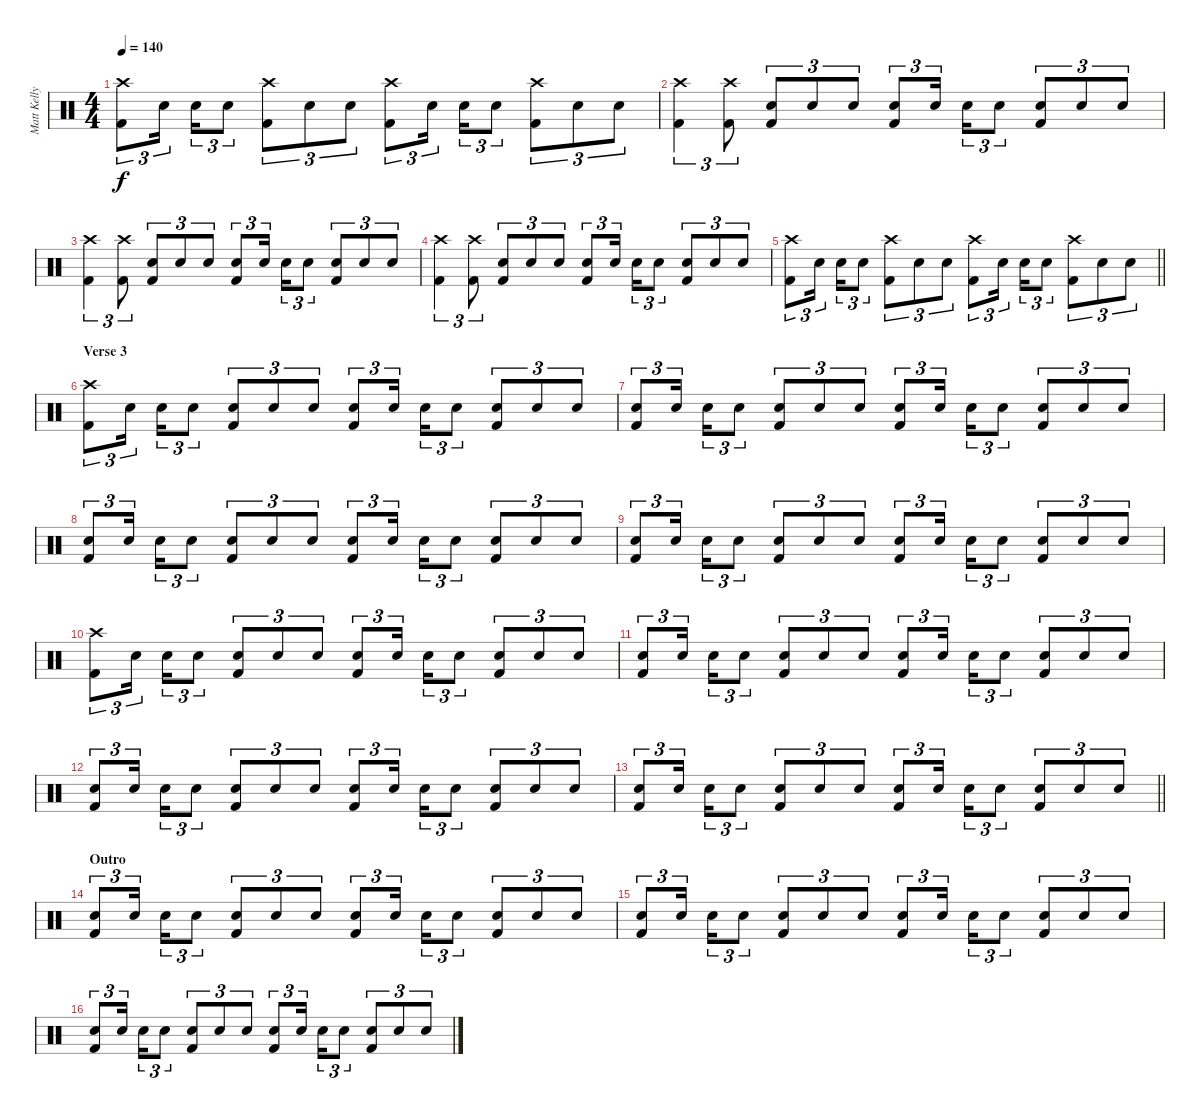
\track ("Matt Kelly (Drums)" "Matt Kelly") {instrument percussion}
\staff {score}
\articulation defaults
\ts (4 4)
\tempo 140
\clef neutral
\ks c
("Crash high (hit)" "Kick (hit) 2").8{tu (3 2) dy f} "Electric Snare (hit)".16{tu (3 2) beam splitsecondary} "Electric Snare (hit)".16{tu (3 2)} "Electric Snare (hit)".8{tu (3 2)} ("Crash high (hit)" "Kick (hit) 2").8{tu (3 2)} "Electric Snare (hit)".8{tu (3 2)} "Electric Snare (hit)".8{tu (3 2)} ("Crash high (hit)" "Kick (hit) 2").8{tu (3 2)} "Electric Snare (hit)".16{tu (3 2) beam splitsecondary} "Electric Snare (hit)".16{tu (3 2)} "Electric Snare (hit)".8{tu (3 2)} ("Crash high (hit)" "Kick (hit) 2").8{tu (3 2)} "Electric Snare (hit)".8{tu (3 2)} "Electric Snare (hit)".8{tu (3 2)} |
("Crash high (hit)" "Kick (hit) 2").4{tu (3 2)} ("Crash high (hit)" "Kick (hit) 2").8{tu (3 2)} ("Electric Snare (hit)" "Kick (hit) 2").8{tu (3 2)} "Electric Snare (hit)".8{tu (3 2)} "Electric Snare (hit)".8{tu (3 2)} ("Electric Snare (hit)" "Kick (hit) 2").8{tu (3 2)} "Electric Snare (hit)".16{tu (3 2) beam splitsecondary} "Electric Snare (hit)".16{tu (3 2)} "Electric Snare (hit)".8{tu (3 2)} ("Electric Snare (hit)" "Kick (hit) 2").8{tu (3 2)} "Electric Snare (hit)".8{tu (3 2)} "Electric Snare (hit)".8{tu (3 2)} |
("Crash high (hit)" "Kick (hit) 2").4{tu (3 2)} ("Crash high (hit)" "Kick (hit) 2").8{tu (3 2)} ("Electric Snare (hit)" "Kick (hit) 2").8{tu (3 2)} "Electric Snare (hit)".8{tu (3 2)} "Electric Snare (hit)".8{tu (3 2)} ("Electric Snare (hit)" "Kick (hit) 2").8{tu (3 2)} "Electric Snare (hit)".16{tu (3 2) beam splitsecondary} "Electric Snare (hit)".16{tu (3 2)} "Electric Snare (hit)".8{tu (3 2)} ("Electric Snare (hit)" "Kick (hit) 2").8{tu (3 2)} "Electric Snare (hit)".8{tu (3 2)} "Electric Snare (hit)".8{tu (3 2)} |
("Crash high (hit)" "Kick (hit) 2").4{tu (3 2)} ("Crash high (hit)" "Kick (hit) 2").8{tu (3 2)} ("Electric Snare (hit)" "Kick (hit) 2").8{tu (3 2)} "Electric Snare (hit)".8{tu (3 2)} "Electric Snare (hit)".8{tu (3 2)} ("Electric Snare (hit)" "Kick (hit) 2").8{tu (3 2)} "Electric Snare (hit)".16{tu (3 2) beam splitsecondary} "Electric Snare (hit)".16{tu (3 2)} "Electric Snare (hit)".8{tu (3 2)} ("Electric Snare (hit)" "Kick (hit) 2").8{tu (3 2)} "Electric Snare (hit)".8{tu (3 2)} "Electric Snare (hit)".8{tu (3 2)} |
\barLineRight lightlight
("Crash high (hit)" "Kick (hit) 2").8{tu (3 2)} "Electric Snare (hit)".16{tu (3 2) beam splitsecondary} "Electric Snare (hit)".16{tu (3 2)} "Electric Snare (hit)".8{tu (3 2)} ("Crash high (hit)" "Kick (hit) 2").8{tu (3 2)} "Electric Snare (hit)".8{tu (3 2)} "Electric Snare (hit)".8{tu (3 2)} ("Crash high (hit)" "Kick (hit) 2").8{tu (3 2)} "Electric Snare (hit)".16{tu (3 2) beam splitsecondary} "Electric Snare (hit)".16{tu (3 2)} "Electric Snare (hit)".8{tu (3 2)} ("Crash high (hit)" "Kick (hit) 2").8{tu (3 2)} "Electric Snare (hit)".8{tu (3 2)} "Electric Snare (hit)".8{tu (3 2)} |
\section ("" "Verse 3")
("Crash high (hit)" "Kick (hit) 2").8{tu (3 2)} "Electric Snare (hit)".16{tu (3 2) beam splitsecondary} "Electric Snare (hit)".16{tu (3 2)} "Electric Snare (hit)".8{tu (3 2)} ("Electric Snare (hit)" "Kick (hit) 2").8{tu (3 2)} "Electric Snare (hit)".8{tu (3 2)} "Electric Snare (hit)".8{tu (3 2)} ("Electric Snare (hit)" "Kick (hit) 2").8{tu (3 2)} "Electric Snare (hit)".16{tu (3 2) beam splitsecondary} "Electric Snare (hit)".16{tu (3 2)} "Electric Snare (hit)".8{tu (3 2)} ("Electric Snare (hit)" "Kick (hit) 2").8{tu (3 2)} "Electric Snare (hit)".8{tu (3 2)} "Electric Snare (hit)".8{tu (3 2)} |
("Electric Snare (hit)" "Kick (hit) 2").8{tu (3 2)} "Electric Snare (hit)".16{tu (3 2) beam splitsecondary} "Electric Snare (hit)".16{tu (3 2)} "Electric Snare (hit)".8{tu (3 2)} ("Electric Snare (hit)" "Kick (hit) 2").8{tu (3 2)} "Electric Snare (hit)".8{tu (3 2)} "Electric Snare (hit)".8{tu (3 2)} ("Electric Snare (hit)" "Kick (hit) 2").8{tu (3 2)} "Electric Snare (hit)".16{tu (3 2) beam splitsecondary} "Electric Snare (hit)".16{tu (3 2)} "Electric Snare (hit)".8{tu (3 2)} ("Electric Snare (hit)" "Kick (hit) 2").8{tu (3 2)} "Electric Snare (hit)".8{tu (3 2)} "Electric Snare (hit)".8{tu (3 2)} |
("Electric Snare (hit)" "Kick (hit) 2").8{tu (3 2)} "Electric Snare (hit)".16{tu (3 2) beam splitsecondary} "Electric Snare (hit)".16{tu (3 2)} "Electric Snare (hit)".8{tu (3 2)} ("Electric Snare (hit)" "Kick (hit) 2").8{tu (3 2)} "Electric Snare (hit)".8{tu (3 2)} "Electric Snare (hit)".8{tu (3 2)} ("Electric Snare (hit)" "Kick (hit) 2").8{tu (3 2)} "Electric Snare (hit)".16{tu (3 2) beam splitsecondary} "Electric Snare (hit)".16{tu (3 2)} "Electric Snare (hit)".8{tu (3 2)} ("Electric Snare (hit)" "Kick (hit) 2").8{tu (3 2)} "Electric Snare (hit)".8{tu (3 2)} "Electric Snare (hit)".8{tu (3 2)} |
("Electric Snare (hit)" "Kick (hit) 2").8{tu (3 2)} "Electric Snare (hit)".16{tu (3 2) beam splitsecondary} "Electric Snare (hit)".16{tu (3 2)} "Electric Snare (hit)".8{tu (3 2)} ("Electric Snare (hit)" "Kick (hit) 2").8{tu (3 2)} "Electric Snare (hit)".8{tu (3 2)} "Electric Snare (hit)".8{tu (3 2)} ("Electric Snare (hit)" "Kick (hit) 2").8{tu (3 2)} "Electric Snare (hit)".16{tu (3 2) beam splitsecondary} "Electric Snare (hit)".16{tu (3 2)} "Electric Snare (hit)".8{tu (3 2)} ("Electric Snare (hit)" "Kick (hit) 2").8{tu (3 2)} "Electric Snare (hit)".8{tu (3 2)} "Electric Snare (hit)".8{tu (3 2)} |
("Crash high (hit)" "Kick (hit) 2").8{tu (3 2)} "Electric Snare (hit)".16{tu (3 2) beam splitsecondary} "Electric Snare (hit)".16{tu (3 2)} "Electric Snare (hit)".8{tu (3 2)} ("Electric Snare (hit)" "Kick (hit) 2").8{tu (3 2)} "Electric Snare (hit)".8{tu (3 2)} "Electric Snare (hit)".8{tu (3 2)} ("Electric Snare (hit)" "Kick (hit) 2").8{tu (3 2)} "Electric Snare (hit)".16{tu (3 2) beam splitsecondary} "Electric Snare (hit)".16{tu (3 2)} "Electric Snare (hit)".8{tu (3 2)} ("Electric Snare (hit)" "Kick (hit) 2").8{tu (3 2)} "Electric Snare (hit)".8{tu (3 2)} "Electric Snare (hit)".8{tu (3 2)} |
("Electric Snare (hit)" "Kick (hit) 2").8{tu (3 2)} "Electric Snare (hit)".16{tu (3 2) beam splitsecondary} "Electric Snare (hit)".16{tu (3 2)} "Electric Snare (hit)".8{tu (3 2)} ("Electric Snare (hit)" "Kick (hit) 2").8{tu (3 2)} "Electric Snare (hit)".8{tu (3 2)} "Electric Snare (hit)".8{tu (3 2)} ("Electric Snare (hit)" "Kick (hit) 2").8{tu (3 2)} "Electric Snare (hit)".16{tu (3 2) beam splitsecondary} "Electric Snare (hit)".16{tu (3 2)} "Electric Snare (hit)".8{tu (3 2)} ("Electric Snare (hit)" "Kick (hit) 2").8{tu (3 2)} "Electric Snare (hit)".8{tu (3 2)} "Electric Snare (hit)".8{tu (3 2)} |
("Electric Snare (hit)" "Kick (hit) 2").8{tu (3 2)} "Electric Snare (hit)".16{tu (3 2) beam splitsecondary} "Electric Snare (hit)".16{tu (3 2)} "Electric Snare (hit)".8{tu (3 2)} ("Electric Snare (hit)" "Kick (hit) 2").8{tu (3 2)} "Electric Snare (hit)".8{tu (3 2)} "Electric Snare (hit)".8{tu (3 2)} ("Electric Snare (hit)" "Kick (hit) 2").8{tu (3 2)} "Electric Snare (hit)".16{tu (3 2) beam splitsecondary} "Electric Snare (hit)".16{tu (3 2)} "Electric Snare (hit)".8{tu (3 2)} ("Electric Snare (hit)" "Kick (hit) 2").8{tu (3 2)} "Electric Snare (hit)".8{tu (3 2)} "Electric Snare (hit)".8{tu (3 2)} |
\barLineRight lightlight
("Electric Snare (hit)" "Kick (hit) 2").8{tu (3 2)} "Electric Snare (hit)".16{tu (3 2) beam splitsecondary} "Electric Snare (hit)".16{tu (3 2)} "Electric Snare (hit)".8{tu (3 2)} ("Electric Snare (hit)" "Kick (hit) 2").8{tu (3 2)} "Electric Snare (hit)".8{tu (3 2)} "Electric Snare (hit)".8{tu (3 2)} ("Electric Snare (hit)" "Kick (hit) 2").8{tu (3 2)} "Electric Snare (hit)".16{tu (3 2) beam splitsecondary} "Electric Snare (hit)".16{tu (3 2)} "Electric Snare (hit)".8{tu (3 2)} ("Electric Snare (hit)" "Kick (hit) 2").8{tu (3 2)} "Electric Snare (hit)".8{tu (3 2)} "Electric Snare (hit)".8{tu (3 2)} |
\section ("" "Outro")
("Electric Snare (hit)" "Kick (hit) 2").8{tu (3 2)} "Electric Snare (hit)".16{tu (3 2) beam splitsecondary} "Electric Snare (hit)".16{tu (3 2)} "Electric Snare (hit)".8{tu (3 2)} ("Electric Snare (hit)" "Kick (hit) 2").8{tu (3 2)} "Electric Snare (hit)".8{tu (3 2)} "Electric Snare (hit)".8{tu (3 2)} ("Electric Snare (hit)" "Kick (hit) 2").8{tu (3 2)} "Electric Snare (hit)".16{tu (3 2) beam splitsecondary} "Electric Snare (hit)".16{tu (3 2)} "Electric Snare (hit)".8{tu (3 2)} ("Electric Snare (hit)" "Kick (hit) 2").8{tu (3 2)} "Electric Snare (hit)".8{tu (3 2)} "Electric Snare (hit)".8{tu (3 2)} |
("Electric Snare (hit)" "Kick (hit) 2").8{tu (3 2)} "Electric Snare (hit)".16{tu (3 2) beam splitsecondary} "Electric Snare (hit)".16{tu (3 2)} "Electric Snare (hit)".8{tu (3 2)} ("Electric Snare (hit)" "Kick (hit) 2").8{tu (3 2)} "Electric Snare (hit)".8{tu (3 2)} "Electric Snare (hit)".8{tu (3 2)} ("Electric Snare (hit)" "Kick (hit) 2").8{tu (3 2)} "Electric Snare (hit)".16{tu (3 2) beam splitsecondary} "Electric Snare (hit)".16{tu (3 2)} "Electric Snare (hit)".8{tu (3 2)} ("Electric Snare (hit)" "Kick (hit) 2").8{tu (3 2)} "Electric Snare (hit)".8{tu (3 2)} "Electric Snare (hit)".8{tu (3 2)} |
("Electric Snare (hit)" "Kick (hit) 2").8{tu (3 2)} "Electric Snare (hit)".16{tu (3 2) beam splitsecondary} "Electric Snare (hit)".16{tu (3 2)} "Electric Snare (hit)".8{tu (3 2)} ("Electric Snare (hit)" "Kick (hit) 2").8{tu (3 2)} "Electric Snare (hit)".8{tu (3 2)} "Electric Snare (hit)".8{tu (3 2)} ("Electric Snare (hit)" "Kick (hit) 2").8{tu (3 2)} "Electric Snare (hit)".16{tu (3 2) beam splitsecondary} "Electric Snare (hit)".16{tu (3 2)} "Electric Snare (hit)".8{tu (3 2)} ("Electric Snare (hit)" "Kick (hit) 2").8{tu (3 2)} "Electric Snare (hit)".8{tu (3 2)} "Electric Snare (hit)".8{tu (3 2)}
